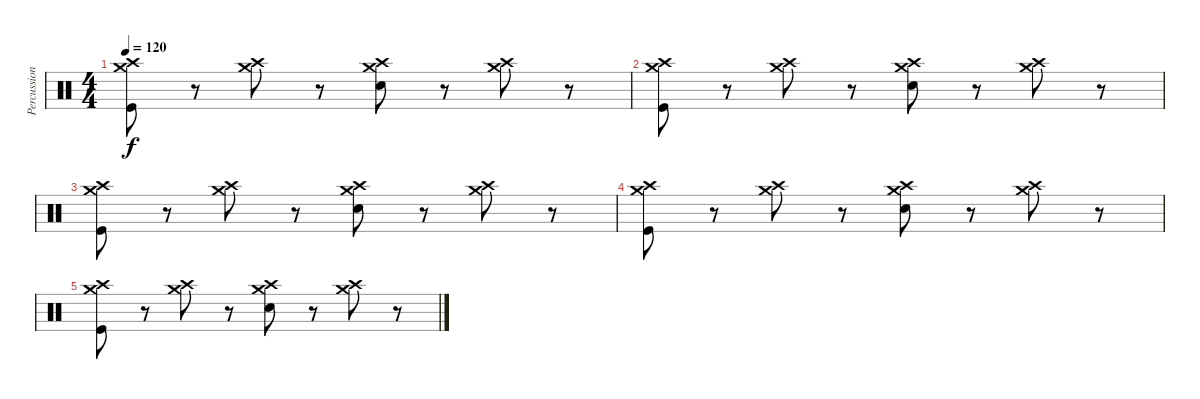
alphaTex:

\track ("Percussion" "Percussion") {instrument percussion}
\staff {score}
\articulation defaults
\ts (4 4)
\tempo 120
\clef neutral
\ks c
("Crash medium (hit)" "Crash high (hit)" "Kick (hit)").8{dy f} r.8 ("Crash medium (hit)" "Crash high (hit)").8 r.8 ("Crash medium (hit)" "Crash high (hit)" "Snare (hit) 2").8 r.8 ("Crash medium (hit)" "Crash high (hit)").8 r.8 |
("Crash medium (hit)" "Crash high (hit)" "Kick (hit)").8 r.8 ("Crash medium (hit)" "Crash high (hit)").8 r.8 ("Crash medium (hit)" "Crash high (hit)" "Snare (hit) 2").8 r.8 ("Crash medium (hit)" "Crash high (hit)").8 r.8 |
("Crash medium (hit)" "Crash high (hit)" "Kick (hit)").8 r.8 ("Crash medium (hit)" "Crash high (hit)").8 r.8 ("Crash medium (hit)" "Crash high (hit)" "Snare (hit) 2").8 r.8 ("Crash medium (hit)" "Crash high (hit)").8 r.8 |
("Crash medium (hit)" "Crash high (hit)" "Kick (hit)").8 r.8 ("Crash medium (hit)" "Crash high (hit)").8 r.8 ("Crash medium (hit)" "Crash high (hit)" "Snare (hit) 2").8 r.8 ("Crash medium (hit)" "Crash high (hit)").8 r.8 |
("Crash medium (hit)" "Crash high (hit)" "Kick (hit)").8 r.8 ("Crash medium (hit)" "Crash high (hit)").8 r.8 ("Crash medium (hit)" "Crash high (hit)" "Snare (hit) 2").8 r.8 ("Crash medium (hit)" "Crash high (hit)").8 r.8
